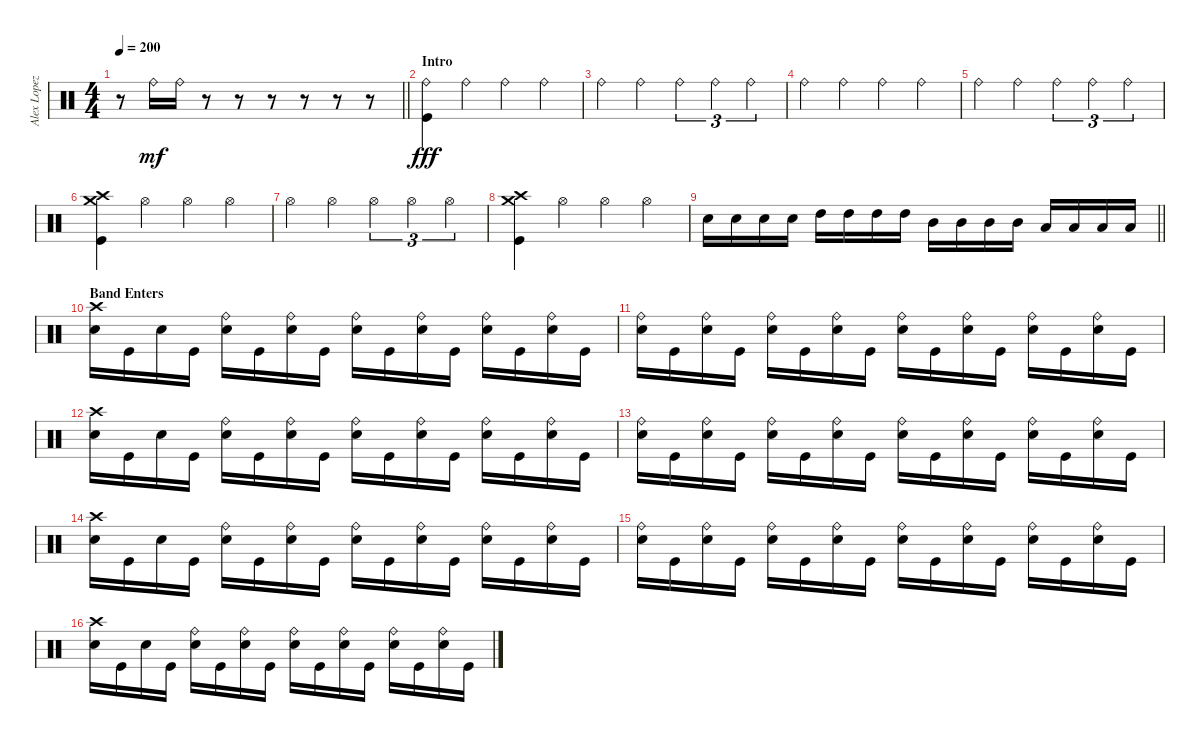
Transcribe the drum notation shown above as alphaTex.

\track ("Alex Lopez" "Alex Lopez") {instrument percussion}
\staff {score}
\articulation defaults
\ts (4 4)
\tempo 200
\clef neutral
\barLineRight lightlight
\ks c
r.8{dy mf} "Ride (bell)".16 "Ride (bell)".16 r.8 r.8 r.8 r.8 r.8 r.8 |
\section ("" "Intro")
("Ride (bell)" "Kick (hit)").4{dy fff} "Ride (bell)".4 "Ride (bell)".4 "Ride (bell)".4 |
"Ride (bell)".4 "Ride (bell)".4 "Ride (bell)".4{tu (3 2)} "Ride (bell)".4{tu (3 2)} "Ride (bell)".4{tu (3 2)} |
"Ride (bell)".4 "Ride (bell)".4 "Ride (bell)".4 "Ride (bell)".4 |
"Ride (bell)".4 "Ride (bell)".4 "Ride (bell)".4{tu (3 2)} "Ride (bell)".4{tu (3 2)} "Ride (bell)".4{tu (3 2)} |
("Crash high (hit)" "Crash medium (hit)" "Kick (hit)").4 "Hi-Hat (open)".4 "Hi-Hat (open)".4 "Hi-Hat (open)".4 |
"Hi-Hat (open)".4 "Hi-Hat (open)".4 "Hi-Hat (open)".4{tu (3 2)} "Hi-Hat (open)".4{tu (3 2)} "Hi-Hat (open)".4{tu (3 2)} |
("Crash high (hit)" "Crash medium (hit)" "Kick (hit)").4 "Hi-Hat (open)".4 "Hi-Hat (open)".4 "Hi-Hat (open)".4 |
\barLineRight lightlight "Snare (hit) 2".16 "Snare (hit) 2".16 "Snare (hit) 2".16 "Snare (hit) 2".16 "High Tom (hit)".16 "High Tom (hit)".16 "High Tom (hit)".16 "High Tom (hit)".16 "Mid Tom (hit)".16 "Mid Tom (hit)".16 "Mid Tom (hit)".16 "Mid Tom (hit)".16 "Low Tom (hit)".16 "Low Tom (hit)".16 "Low Tom (hit)".16 "Low Tom (hit)".16
|
\section ("" "Band Enters")
("Snare (hit) 2" "Crash high (hit)").16 "Kick (hit)".16 "Snare (hit) 2".16 "Kick (hit)".16 ("Snare (hit) 2" "Ride (bell)").16 "Kick (hit)".16 ("Snare (hit) 2" "Ride (bell)").16 "Kick (hit)".16 ("Snare (hit) 2" "Ride (bell)").16 "Kick (hit)".16 ("Snare (hit) 2" "Ride (bell)").16 "Kick (hit)".16 ("Snare (hit) 2" "Ride (bell)").16 "Kick (hit)".16 ("Snare (hit) 2" "Ride (bell)").16 "Kick (hit)".16 |
("Snare (hit) 2" "Ride (bell)").16 "Kick (hit)".16 ("Snare (hit) 2" "Ride (bell)").16 "Kick (hit)".16 ("Snare (hit) 2" "Ride (bell)").16 "Kick (hit)".16 ("Snare (hit) 2" "Ride (bell)").16 "Kick (hit)".16 ("Snare (hit) 2" "Ride (bell)").16 "Kick (hit)".16 ("Snare (hit) 2" "Ride (bell)").16 "Kick (hit)".16 ("Snare (hit) 2" "Ride (bell)").16 "Kick (hit)".16 ("Snare (hit) 2" "Ride (bell)").16 "Kick (hit)".16 |
("Snare (hit) 2" "Crash high (hit)").16 "Kick (hit)".16 "Snare (hit) 2".16 "Kick (hit)".16 ("Snare (hit) 2" "Ride (bell)").16 "Kick (hit)".16 ("Snare (hit) 2" "Ride (bell)").16 "Kick (hit)".16 ("Snare (hit) 2" "Ride (bell)").16 "Kick (hit)".16 ("Snare (hit) 2" "Ride (bell)").16 "Kick (hit)".16 ("Snare (hit) 2" "Ride (bell)").16 "Kick (hit)".16 ("Snare (hit) 2" "Ride (bell)").16 "Kick (hit)".16 |
("Snare (hit) 2" "Ride (bell)").16 "Kick (hit)".16 ("Snare (hit) 2" "Ride (bell)").16 "Kick (hit)".16 ("Snare (hit) 2" "Ride (bell)").16 "Kick (hit)".16 ("Snare (hit) 2" "Ride (bell)").16 "Kick (hit)".16 ("Snare (hit) 2" "Ride (bell)").16 "Kick (hit)".16 ("Snare (hit) 2" "Ride (bell)").16 "Kick (hit)".16 ("Snare (hit) 2" "Ride (bell)").16 "Kick (hit)".16 ("Snare (hit) 2" "Ride (bell)").16 "Kick (hit)".16 |
("Snare (hit) 2" "Crash high (hit)").16 "Kick (hit)".16 "Snare (hit) 2".16 "Kick (hit)".16 ("Snare (hit) 2" "Ride (bell)").16 "Kick (hit)".16 ("Snare (hit) 2" "Ride (bell)").16 "Kick (hit)".16 ("Snare (hit) 2" "Ride (bell)").16 "Kick (hit)".16 ("Snare (hit) 2" "Ride (bell)").16 "Kick (hit)".16 ("Snare (hit) 2" "Ride (bell)").16 "Kick (hit)".16 ("Snare (hit) 2" "Ride (bell)").16 "Kick (hit)".16 |
("Snare (hit) 2" "Ride (bell)").16 "Kick (hit)".16 ("Snare (hit) 2" "Ride (bell)").16 "Kick (hit)".16 ("Snare (hit) 2" "Ride (bell)").16 "Kick (hit)".16 ("Snare (hit) 2" "Ride (bell)").16 "Kick (hit)".16 ("Snare (hit) 2" "Ride (bell)").16 "Kick (hit)".16 ("Snare (hit) 2" "Ride (bell)").16 "Kick (hit)".16 ("Snare (hit) 2" "Ride (bell)").16 "Kick (hit)".16 ("Snare (hit) 2" "Ride (bell)").16 "Kick (hit)".16 |
("Snare (hit) 2" "Crash high (hit)").16 "Kick (hit)".16 "Snare (hit) 2".16 "Kick (hit)".16 ("Snare (hit) 2" "Ride (bell)").16 "Kick (hit)".16 ("Snare (hit) 2" "Ride (bell)").16 "Kick (hit)".16 ("Snare (hit) 2" "Ride (bell)").16 "Kick (hit)".16 ("Snare (hit) 2" "Ride (bell)").16 "Kick (hit)".16 ("Snare (hit) 2" "Ride (bell)").16 "Kick (hit)".16 ("Snare (hit) 2" "Ride (bell)").16 "Kick (hit)".16
